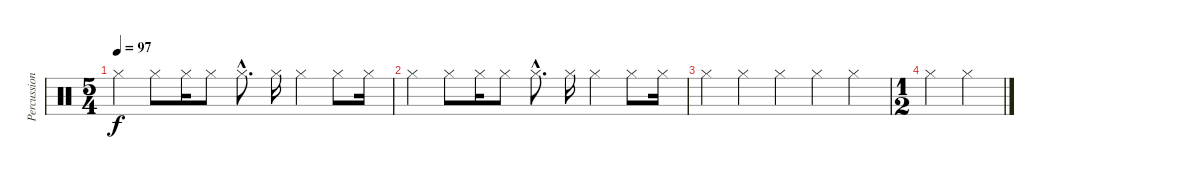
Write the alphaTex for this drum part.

\track ("Percussions" "Percussion") {instrument percussion}
\staff {score}
\articulation defaults
\ts (5 4)
\tempo 97
\clef neutral
\ks c "Hi-Hat (closed)".4{dy f} "Hi-Hat (closed)".8 "Hi-Hat (closed)".16 "Hi-Hat (closed)".8 "Hi-Hat (closed)"{hac}.8{d} "Hi-Hat (closed)".16 "Hi-Hat (closed)".4 "Hi-Hat (closed)".8 "Hi-Hat (closed)".16
|
"Hi-Hat (closed)".4 "Hi-Hat (closed)".8 "Hi-Hat (closed)".16 "Hi-Hat (closed)".8 "Hi-Hat (closed)"{hac}.8{d} "Hi-Hat (closed)".16 "Hi-Hat (closed)".4 "Hi-Hat (closed)".8 "Hi-Hat (closed)".16{volume 0} |
"Hi-Hat (closed)".4 "Hi-Hat (closed)".4 "Hi-Hat (closed)".4 "Hi-Hat (closed)".4 "Hi-Hat (closed)".4 |
\ts (1 2)
"Hi-Hat (closed)".4 "Hi-Hat (closed)".4
